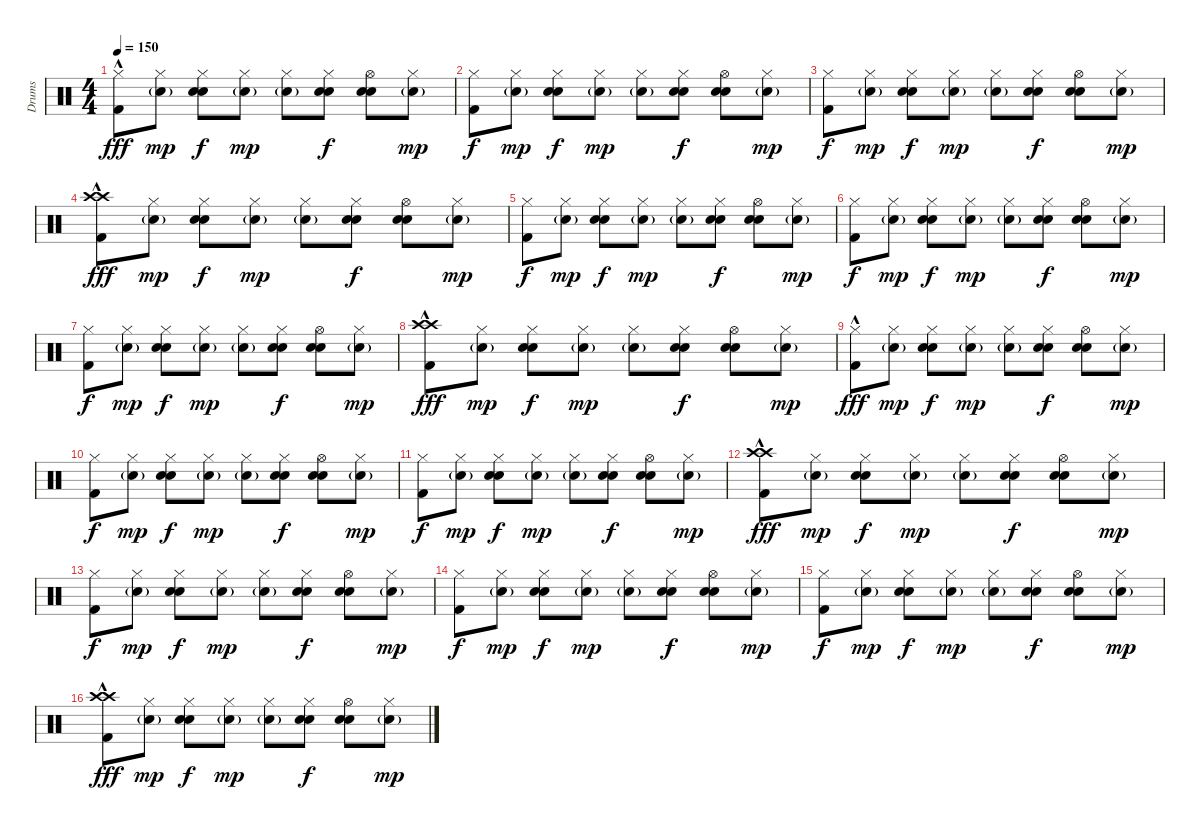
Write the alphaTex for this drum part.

\track ("Drums" "Drums") {instrument percussion}
\staff {score}
\articulation defaults
\ts (4 4)
\tempo 150
\clef neutral
\ks c
("Hi-Hat (closed)"{hac} "Kick (hit) 2").8{dy fff} ("Hi-Hat (closed)" "Electric Snare (hit)"{g}).8{dy mp} ("Hi-Hat (closed)" "Electric Snare (hit)" "Hand Clap (hit)").8{dy f} ("Hi-Hat (closed)" "Electric Snare (hit)"{g}).8{dy mp} ("Hi-Hat (closed)" "Electric Snare (hit)"{g}).8 ("Hi-Hat (closed)" "Electric Snare (hit)" "Hand Clap (hit)").8{dy f} ("Hi-Hat (open)" "Electric Snare (hit)" "Hand Clap (hit)").8 ("Hi-Hat (closed)" "Electric Snare (hit)"{g}).8{dy mp} |
("Hi-Hat (closed)" "Kick (hit) 2").8{dy f} ("Hi-Hat (closed)" "Electric Snare (hit)"{g}).8{dy mp} ("Hi-Hat (closed)" "Electric Snare (hit)" "Hand Clap (hit)").8{dy f} ("Hi-Hat (closed)" "Electric Snare (hit)"{g}).8{dy mp} ("Hi-Hat (closed)" "Electric Snare (hit)"{g}).8 ("Hi-Hat (closed)" "Electric Snare (hit)" "Hand Clap (hit)").8{dy f} ("Hi-Hat (open)" "Electric Snare (hit)" "Hand Clap (hit)").8 ("Hi-Hat (closed)" "Electric Snare (hit)"{g}).8{dy mp} |
("Hi-Hat (closed)" "Kick (hit) 2").8{dy f} ("Hi-Hat (closed)" "Electric Snare (hit)"{g}).8{dy mp} ("Hi-Hat (closed)" "Electric Snare (hit)" "Hand Clap (hit)").8{dy f} ("Hi-Hat (closed)" "Electric Snare (hit)"{g}).8{dy mp} ("Hi-Hat (closed)" "Electric Snare (hit)"{g}).8 ("Hi-Hat (closed)" "Electric Snare (hit)" "Hand Clap (hit)").8{dy f} ("Hi-Hat (open)" "Electric Snare (hit)" "Hand Clap (hit)").8 ("Hi-Hat (closed)" "Electric Snare (hit)"{g}).8{dy mp} |
("Crash high (hit)"{hac} "Crash high (hit)"{hac} "Kick (hit) 2").8{dy fff} ("Hi-Hat (closed)" "Electric Snare (hit)"{g}).8{dy mp} ("Hi-Hat (closed)" "Electric Snare (hit)" "Hand Clap (hit)").8{dy f} ("Hi-Hat (closed)" "Electric Snare (hit)"{g}).8{dy mp} ("Hi-Hat (closed)" "Electric Snare (hit)"{g}).8 ("Hi-Hat (closed)" "Electric Snare (hit)" "Hand Clap (hit)").8{dy f} ("Hi-Hat (open)" "Electric Snare (hit)" "Hand Clap (hit)").8 ("Hi-Hat (closed)" "Electric Snare (hit)"{g}).8{dy mp} |
("Hi-Hat (closed)" "Kick (hit) 2").8{dy f} ("Hi-Hat (closed)" "Electric Snare (hit)"{g}).8{dy mp} ("Hi-Hat (closed)" "Electric Snare (hit)" "Hand Clap (hit)").8{dy f} ("Hi-Hat (closed)" "Electric Snare (hit)"{g}).8{dy mp} ("Hi-Hat (closed)" "Electric Snare (hit)"{g}).8 ("Hi-Hat (closed)" "Electric Snare (hit)" "Hand Clap (hit)").8{dy f} ("Hi-Hat (open)" "Electric Snare (hit)" "Hand Clap (hit)").8 ("Hi-Hat (closed)" "Electric Snare (hit)"{g}).8{dy mp} |
("Hi-Hat (closed)" "Kick (hit) 2").8{dy f} ("Hi-Hat (closed)" "Electric Snare (hit)"{g}).8{dy mp} ("Hi-Hat (closed)" "Electric Snare (hit)" "Hand Clap (hit)").8{dy f} ("Hi-Hat (closed)" "Electric Snare (hit)"{g}).8{dy mp} ("Hi-Hat (closed)" "Electric Snare (hit)"{g}).8 ("Hi-Hat (closed)" "Electric Snare (hit)" "Hand Clap (hit)").8{dy f} ("Hi-Hat (open)" "Electric Snare (hit)" "Hand Clap (hit)").8 ("Hi-Hat (closed)" "Electric Snare (hit)"{g}).8{dy mp} |
("Hi-Hat (closed)" "Kick (hit) 2").8{dy f} ("Hi-Hat (closed)" "Electric Snare (hit)"{g}).8{dy mp} ("Hi-Hat (closed)" "Electric Snare (hit)" "Hand Clap (hit)").8{dy f} ("Hi-Hat (closed)" "Electric Snare (hit)"{g}).8{dy mp} ("Hi-Hat (closed)" "Electric Snare (hit)"{g}).8 ("Hi-Hat (closed)" "Electric Snare (hit)" "Hand Clap (hit)").8{dy f} ("Hi-Hat (open)" "Electric Snare (hit)" "Hand Clap (hit)").8 ("Hi-Hat (closed)" "Electric Snare (hit)"{g}).8{dy mp} |
("Crash high (hit)"{hac} "Crash high (hit)"{hac} "Kick (hit) 2").8{dy fff} ("Hi-Hat (closed)" "Electric Snare (hit)"{g}).8{dy mp} ("Hi-Hat (closed)" "Electric Snare (hit)" "Hand Clap (hit)").8{dy f} ("Hi-Hat (closed)" "Electric Snare (hit)"{g}).8{dy mp} ("Hi-Hat (closed)" "Electric Snare (hit)"{g}).8 ("Hi-Hat (closed)" "Electric Snare (hit)" "Hand Clap (hit)").8{dy f} ("Hi-Hat (open)" "Electric Snare (hit)" "Hand Clap (hit)").8 ("Hi-Hat (closed)" "Electric Snare (hit)"{g}).8{dy mp} |
("Hi-Hat (closed)"{hac} "Kick (hit) 2").8{dy fff} ("Hi-Hat (closed)" "Electric Snare (hit)"{g}).8{dy mp} ("Hi-Hat (closed)" "Electric Snare (hit)" "Hand Clap (hit)").8{dy f} ("Hi-Hat (closed)" "Electric Snare (hit)"{g}).8{dy mp} ("Hi-Hat (closed)" "Electric Snare (hit)"{g}).8 ("Hi-Hat (closed)" "Electric Snare (hit)" "Hand Clap (hit)").8{dy f} ("Hi-Hat (open)" "Electric Snare (hit)" "Hand Clap (hit)").8 ("Hi-Hat (closed)" "Electric Snare (hit)"{g}).8{dy mp} |
("Hi-Hat (closed)" "Kick (hit) 2").8{dy f} ("Hi-Hat (closed)" "Electric Snare (hit)"{g}).8{dy mp} ("Hi-Hat (closed)" "Electric Snare (hit)" "Hand Clap (hit)").8{dy f} ("Hi-Hat (closed)" "Electric Snare (hit)"{g}).8{dy mp} ("Hi-Hat (closed)" "Electric Snare (hit)"{g}).8 ("Hi-Hat (closed)" "Electric Snare (hit)" "Hand Clap (hit)").8{dy f} ("Hi-Hat (open)" "Electric Snare (hit)" "Hand Clap (hit)").8 ("Hi-Hat (closed)" "Electric Snare (hit)"{g}).8{dy mp} |
("Hi-Hat (closed)" "Kick (hit) 2").8{dy f} ("Hi-Hat (closed)" "Electric Snare (hit)"{g}).8{dy mp} ("Hi-Hat (closed)" "Electric Snare (hit)" "Hand Clap (hit)").8{dy f} ("Hi-Hat (closed)" "Electric Snare (hit)"{g}).8{dy mp} ("Hi-Hat (closed)" "Electric Snare (hit)"{g}).8 ("Hi-Hat (closed)" "Electric Snare (hit)" "Hand Clap (hit)").8{dy f} ("Hi-Hat (open)" "Electric Snare (hit)" "Hand Clap (hit)").8 ("Hi-Hat (closed)" "Electric Snare (hit)"{g}).8{dy mp} |
("Crash high (hit)"{hac} "Crash high (hit)"{hac} "Kick (hit) 2").8{dy fff} ("Hi-Hat (closed)" "Electric Snare (hit)"{g}).8{dy mp} ("Hi-Hat (closed)" "Electric Snare (hit)" "Hand Clap (hit)").8{dy f} ("Hi-Hat (closed)" "Electric Snare (hit)"{g}).8{dy mp} ("Hi-Hat (closed)" "Electric Snare (hit)"{g}).8 ("Hi-Hat (closed)" "Electric Snare (hit)" "Hand Clap (hit)").8{dy f} ("Hi-Hat (open)" "Electric Snare (hit)" "Hand Clap (hit)").8 ("Hi-Hat (closed)" "Electric Snare (hit)"{g}).8{dy mp} |
("Hi-Hat (closed)" "Kick (hit) 2").8{dy f} ("Hi-Hat (closed)" "Electric Snare (hit)"{g}).8{dy mp} ("Hi-Hat (closed)" "Electric Snare (hit)" "Hand Clap (hit)").8{dy f} ("Hi-Hat (closed)" "Electric Snare (hit)"{g}).8{dy mp} ("Hi-Hat (closed)" "Electric Snare (hit)"{g}).8 ("Hi-Hat (closed)" "Electric Snare (hit)" "Hand Clap (hit)").8{dy f} ("Hi-Hat (open)" "Electric Snare (hit)" "Hand Clap (hit)").8 ("Hi-Hat (closed)" "Electric Snare (hit)"{g}).8{dy mp} |
("Hi-Hat (closed)" "Kick (hit) 2").8{dy f} ("Hi-Hat (closed)" "Electric Snare (hit)"{g}).8{dy mp} ("Hi-Hat (closed)" "Electric Snare (hit)" "Hand Clap (hit)").8{dy f} ("Hi-Hat (closed)" "Electric Snare (hit)"{g}).8{dy mp} ("Hi-Hat (closed)" "Electric Snare (hit)"{g}).8 ("Hi-Hat (closed)" "Electric Snare (hit)" "Hand Clap (hit)").8{dy f} ("Hi-Hat (open)" "Electric Snare (hit)" "Hand Clap (hit)").8 ("Hi-Hat (closed)" "Electric Snare (hit)"{g}).8{dy mp} |
("Hi-Hat (closed)" "Kick (hit) 2").8{dy f} ("Hi-Hat (closed)" "Electric Snare (hit)"{g}).8{dy mp} ("Hi-Hat (closed)" "Electric Snare (hit)" "Hand Clap (hit)").8{dy f} ("Hi-Hat (closed)" "Electric Snare (hit)"{g}).8{dy mp} ("Hi-Hat (closed)" "Electric Snare (hit)"{g}).8 ("Hi-Hat (closed)" "Electric Snare (hit)" "Hand Clap (hit)").8{dy f} ("Hi-Hat (open)" "Electric Snare (hit)" "Hand Clap (hit)").8 ("Hi-Hat (closed)" "Electric Snare (hit)"{g}).8{dy mp} |
("Crash high (hit)"{hac} "Crash high (hit)"{hac} "Kick (hit) 2").8{dy fff} ("Hi-Hat (closed)" "Electric Snare (hit)"{g}).8{dy mp} ("Hi-Hat (closed)" "Electric Snare (hit)" "Hand Clap (hit)").8{dy f} ("Hi-Hat (closed)" "Electric Snare (hit)"{g}).8{dy mp} ("Hi-Hat (closed)" "Electric Snare (hit)"{g}).8 ("Hi-Hat (closed)" "Electric Snare (hit)" "Hand Clap (hit)").8{dy f} ("Hi-Hat (open)" "Electric Snare (hit)" "Hand Clap (hit)").8 ("Hi-Hat (closed)" "Electric Snare (hit)"{g}).8{dy mp}
